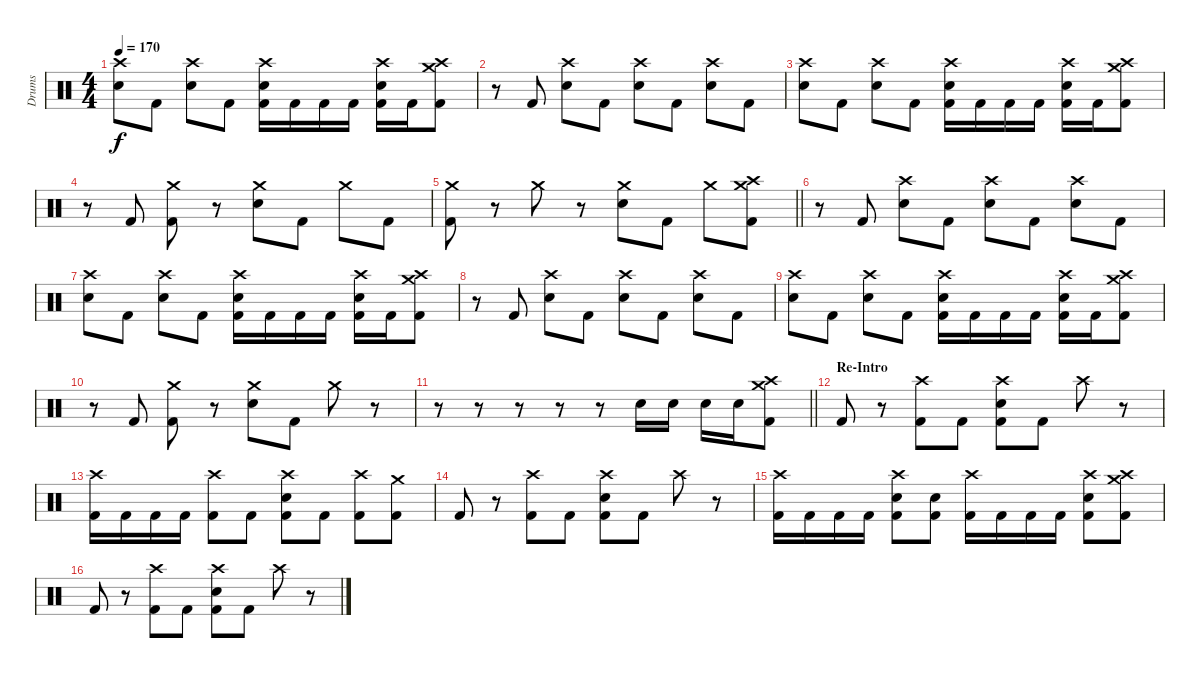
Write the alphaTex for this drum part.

\track ("Drums" "Drums") {instrument percussion}
\staff {score}
\articulation defaults
\ts (4 4)
\tempo 170
\clef neutral
\ks c
("Crash high (hit)" "Snare (hit) 2").8{dy f} "Kick (hit) 2".8 ("Crash high (hit)" "Snare (hit) 2").8 "Kick (hit) 2".8 ("Crash high (hit)" "Snare (hit) 2" "Kick (hit) 2").16 "Kick (hit) 2".16 "Kick (hit) 2".16 "Kick (hit) 2".16 ("Crash high (hit)" "Snare (hit) 2" "Kick (hit) 2").16 "Kick (hit) 2".16 ("Crash high (hit)" "Crash medium (hit)" "Kick (hit) 2").8 |
r.8 "Kick (hit) 2".8 ("Crash high (hit)" "Snare (hit) 2").8 "Kick (hit) 2".8 ("Crash high (hit)" "Snare (hit) 2").8 "Kick (hit) 2".8 ("Crash high (hit)" "Snare (hit) 2").8 "Kick (hit) 2".8 |
("Crash high (hit)" "Snare (hit) 2").8 "Kick (hit) 2".8 ("Crash high (hit)" "Snare (hit) 2").8 "Kick (hit) 2".8 ("Crash high (hit)" "Snare (hit) 2" "Kick (hit) 2").16 "Kick (hit) 2".16 "Kick (hit) 2".16 "Kick (hit) 2".16 ("Crash high (hit)" "Snare (hit) 2" "Kick (hit) 2").16 "Kick (hit) 2".16 ("Crash high (hit)" "Crash medium (hit)" "Kick (hit) 2").8 |
r.8 "Kick (hit) 2".8 ("Crash medium (hit)" "Kick (hit) 2").8 r.8 ("Crash medium (hit)" "Snare (hit) 2").8 "Kick (hit) 2".8 "Crash medium (hit)".8 "Kick (hit) 2".8 |
\barLineRight lightlight
("Crash medium (hit)" "Kick (hit) 2").8 r.8 "Crash medium (hit)".8 r.8 ("Crash medium (hit)" "Snare (hit) 2").8 "Kick (hit) 2".8 "Crash medium (hit)".8 ("Crash high (hit)" "Crash medium (hit)" "Kick (hit) 2").8 |
r.8 "Kick (hit) 2".8 ("Crash high (hit)" "Snare (hit) 2").8 "Kick (hit) 2".8 ("Crash high (hit)" "Snare (hit) 2").8 "Kick (hit) 2".8 ("Crash high (hit)" "Snare (hit) 2").8 "Kick (hit) 2".8 |
("Crash high (hit)" "Snare (hit) 2").8 "Kick (hit) 2".8 ("Crash high (hit)" "Snare (hit) 2").8 "Kick (hit) 2".8 ("Crash high (hit)" "Snare (hit) 2" "Kick (hit) 2").16 "Kick (hit) 2".16 "Kick (hit) 2".16 "Kick (hit) 2".16 ("Crash high (hit)" "Snare (hit) 2" "Kick (hit) 2").16 "Kick (hit) 2".16 ("Crash high (hit)" "Crash medium (hit)" "Kick (hit) 2").8 |
r.8 "Kick (hit) 2".8 ("Crash high (hit)" "Snare (hit) 2").8 "Kick (hit) 2".8 ("Crash high (hit)" "Snare (hit) 2").8 "Kick (hit) 2".8 ("Crash high (hit)" "Snare (hit) 2").8 "Kick (hit) 2".8 |
("Crash high (hit)" "Snare (hit) 2").8 "Kick (hit) 2".8 ("Crash high (hit)" "Snare (hit) 2").8 "Kick (hit) 2".8 ("Crash high (hit)" "Snare (hit) 2" "Kick (hit) 2").16 "Kick (hit) 2".16 "Kick (hit) 2".16 "Kick (hit) 2".16 ("Crash high (hit)" "Snare (hit) 2" "Kick (hit) 2").16 "Kick (hit) 2".16 ("Crash high (hit)" "Crash medium (hit)" "Kick (hit) 2").8 |
r.8 "Kick (hit) 2".8 ("Crash medium (hit)" "Kick (hit) 2").8 r.8 ("Crash medium (hit)" "Snare (hit) 2").8 "Kick (hit) 2".8 "Crash medium (hit)".8 r.8 |
\barLineRight lightlight
r.8 r.8 r.8 r.8 r.8 "Snare (hit) 2".16 "Snare (hit) 2".16 "Snare (hit) 2".16 "Snare (hit) 2".16 ("Crash high (hit)" "Crash medium (hit)" "Kick (hit) 2").8 |
\section ("" "Re-Intro")
"Kick (hit) 2".8 r.8 ("Crash high (hit)" "Kick (hit) 2").8 "Kick (hit) 2".8 ("Crash high (hit)" "Snare (hit) 2" "Kick (hit) 2").8 "Kick (hit) 2".8 "Crash high (hit)".8 r.8 |
("Crash high (hit)" "Kick (hit) 2").16 "Kick (hit) 2".16 "Kick (hit) 2".16 "Kick (hit) 2".16 ("Crash high (hit)" "Kick (hit) 2").8 "Kick (hit) 2".8 ("Crash high (hit)" "Snare (hit) 2" "Kick (hit) 2").8 "Kick (hit) 2".8 ("Crash high (hit)" "Kick (hit) 2").8 ("Crash medium (hit)" "Kick (hit) 2").8 |
"Kick (hit) 2".8 r.8 ("Crash high (hit)" "Kick (hit) 2").8 "Kick (hit) 2".8 ("Crash high (hit)" "Snare (hit) 2" "Kick (hit) 2").8 "Kick (hit) 2".8 "Crash high (hit)".8 r.8 |
("Crash high (hit)" "Kick (hit) 2").16 "Kick (hit) 2".16 "Kick (hit) 2".16 "Kick (hit) 2".16 ("Crash high (hit)" "Snare (hit) 2" "Kick (hit) 2").8 ("Snare (hit) 2" "Kick (hit) 2").8 ("Crash high (hit)" "Kick (hit) 2").16 "Kick (hit) 2".16 "Kick (hit) 2".16 "Kick (hit) 2".16 ("Crash high (hit)" "Snare (hit) 2" "Kick (hit) 2").8 ("Crash high (hit)" "Crash medium (hit)" "Kick (hit) 2").8 |
"Kick (hit) 2".8 r.8 ("Crash high (hit)" "Kick (hit) 2").8 "Kick (hit) 2".8 ("Crash high (hit)" "Snare (hit) 2" "Kick (hit) 2").8 "Kick (hit) 2".8 "Crash high (hit)".8 r.8
